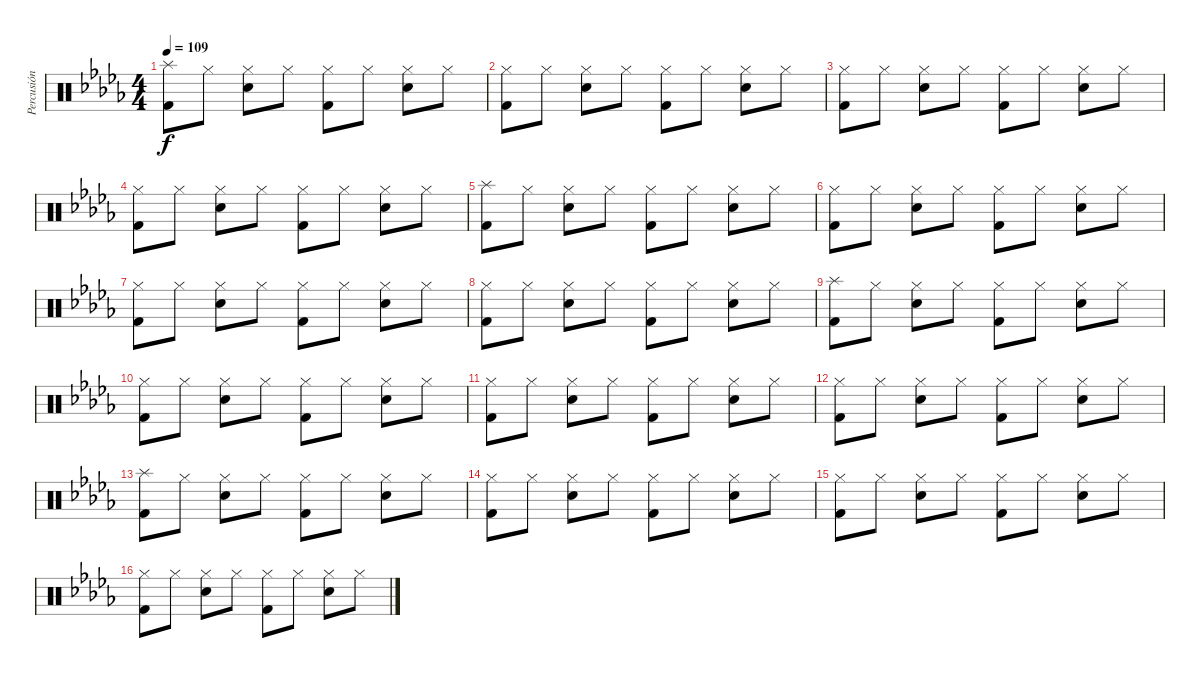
\track ("Percusión" "Percusión") {instrument percussion}
\staff {score}
\articulation defaults
\ts (4 4)
\tempo 109
\clef neutral
\ks bbminor
("Kick (hit) 2" "Splash (hit)").8{dy f} "Hi-Hat (closed)".8 ("Snare (hit) 2" "Hi-Hat (closed)").8 "Hi-Hat (closed)".8 ("Kick (hit) 2" "Hi-Hat (closed)").8 "Hi-Hat (closed)".8 ("Snare (hit) 2" "Hi-Hat (closed)").8 "Hi-Hat (closed)".8 |
("Kick (hit) 2" "Hi-Hat (closed)").8 "Hi-Hat (closed)".8 ("Snare (hit) 2" "Hi-Hat (closed)").8 "Hi-Hat (closed)".8 ("Kick (hit) 2" "Hi-Hat (closed)").8 "Hi-Hat (closed)".8 ("Snare (hit) 2" "Hi-Hat (closed)").8 "Hi-Hat (closed)".8 |
("Kick (hit) 2" "Hi-Hat (closed)").8 "Hi-Hat (closed)".8 ("Snare (hit) 2" "Hi-Hat (closed)").8 "Hi-Hat (closed)".8 ("Kick (hit) 2" "Hi-Hat (closed)").8 "Hi-Hat (closed)".8 ("Snare (hit) 2" "Hi-Hat (closed)").8 "Hi-Hat (closed)".8 |
("Kick (hit) 2" "Hi-Hat (closed)").8 "Hi-Hat (closed)".8 ("Snare (hit) 2" "Hi-Hat (closed)").8 "Hi-Hat (closed)".8 ("Kick (hit) 2" "Hi-Hat (closed)").8 "Hi-Hat (closed)".8 ("Snare (hit) 2" "Hi-Hat (closed)").8 "Hi-Hat (closed)".8 |
("Kick (hit) 2" "Splash (hit)").8 "Hi-Hat (closed)".8 ("Snare (hit) 2" "Hi-Hat (closed)").8 "Hi-Hat (closed)".8 ("Kick (hit) 2" "Hi-Hat (closed)").8 "Hi-Hat (closed)".8 ("Snare (hit) 2" "Hi-Hat (closed)").8 "Hi-Hat (closed)".8 |
("Kick (hit) 2" "Hi-Hat (closed)").8 "Hi-Hat (closed)".8 ("Snare (hit) 2" "Hi-Hat (closed)").8 "Hi-Hat (closed)".8 ("Kick (hit) 2" "Hi-Hat (closed)").8 "Hi-Hat (closed)".8 ("Snare (hit) 2" "Hi-Hat (closed)").8 "Hi-Hat (closed)".8 |
("Kick (hit) 2" "Hi-Hat (closed)").8 "Hi-Hat (closed)".8 ("Snare (hit) 2" "Hi-Hat (closed)").8 "Hi-Hat (closed)".8 ("Kick (hit) 2" "Hi-Hat (closed)").8 "Hi-Hat (closed)".8 ("Snare (hit) 2" "Hi-Hat (closed)").8 "Hi-Hat (closed)".8 |
("Kick (hit) 2" "Hi-Hat (closed)").8 "Hi-Hat (closed)".8 ("Snare (hit) 2" "Hi-Hat (closed)").8 "Hi-Hat (closed)".8 ("Kick (hit) 2" "Hi-Hat (closed)").8 "Hi-Hat (closed)".8 ("Snare (hit) 2" "Hi-Hat (closed)").8 "Hi-Hat (closed)".8 |
("Kick (hit) 2" "Splash (hit)").8 "Hi-Hat (closed)".8 ("Snare (hit) 2" "Hi-Hat (closed)").8 "Hi-Hat (closed)".8 ("Kick (hit) 2" "Hi-Hat (closed)").8 "Hi-Hat (closed)".8 ("Snare (hit) 2" "Hi-Hat (closed)").8 "Hi-Hat (closed)".8 |
("Kick (hit) 2" "Hi-Hat (closed)").8 "Hi-Hat (closed)".8 ("Snare (hit) 2" "Hi-Hat (closed)").8 "Hi-Hat (closed)".8 ("Kick (hit) 2" "Hi-Hat (closed)").8 "Hi-Hat (closed)".8 ("Snare (hit) 2" "Hi-Hat (closed)").8 "Hi-Hat (closed)".8 |
("Kick (hit) 2" "Hi-Hat (closed)").8 "Hi-Hat (closed)".8 ("Snare (hit) 2" "Hi-Hat (closed)").8 "Hi-Hat (closed)".8 ("Kick (hit) 2" "Hi-Hat (closed)").8 "Hi-Hat (closed)".8 ("Snare (hit) 2" "Hi-Hat (closed)").8 "Hi-Hat (closed)".8 |
("Kick (hit) 2" "Hi-Hat (closed)").8 "Hi-Hat (closed)".8 ("Snare (hit) 2" "Hi-Hat (closed)").8 "Hi-Hat (closed)".8 ("Kick (hit) 2" "Hi-Hat (closed)").8 "Hi-Hat (closed)".8 ("Snare (hit) 2" "Hi-Hat (closed)").8 "Hi-Hat (closed)".8 |
("Kick (hit) 2" "Splash (hit)").8 "Hi-Hat (closed)".8 ("Snare (hit) 2" "Hi-Hat (closed)").8 "Hi-Hat (closed)".8 ("Kick (hit) 2" "Hi-Hat (closed)").8 "Hi-Hat (closed)".8 ("Snare (hit) 2" "Hi-Hat (closed)").8 "Hi-Hat (closed)".8 |
("Kick (hit) 2" "Hi-Hat (closed)").8 "Hi-Hat (closed)".8 ("Snare (hit) 2" "Hi-Hat (closed)").8 "Hi-Hat (closed)".8 ("Kick (hit) 2" "Hi-Hat (closed)").8 "Hi-Hat (closed)".8 ("Snare (hit) 2" "Hi-Hat (closed)").8 "Hi-Hat (closed)".8 |
("Kick (hit) 2" "Hi-Hat (closed)").8 "Hi-Hat (closed)".8 ("Snare (hit) 2" "Hi-Hat (closed)").8 "Hi-Hat (closed)".8 ("Kick (hit) 2" "Hi-Hat (closed)").8 "Hi-Hat (closed)".8 ("Snare (hit) 2" "Hi-Hat (closed)").8 "Hi-Hat (closed)".8 |
("Kick (hit) 2" "Hi-Hat (closed)").8 "Hi-Hat (closed)".8 ("Snare (hit) 2" "Hi-Hat (closed)").8 "Hi-Hat (closed)".8 ("Kick (hit) 2" "Hi-Hat (closed)").8 "Hi-Hat (closed)".8 ("Snare (hit) 2" "Hi-Hat (closed)").8 "Hi-Hat (closed)".8
